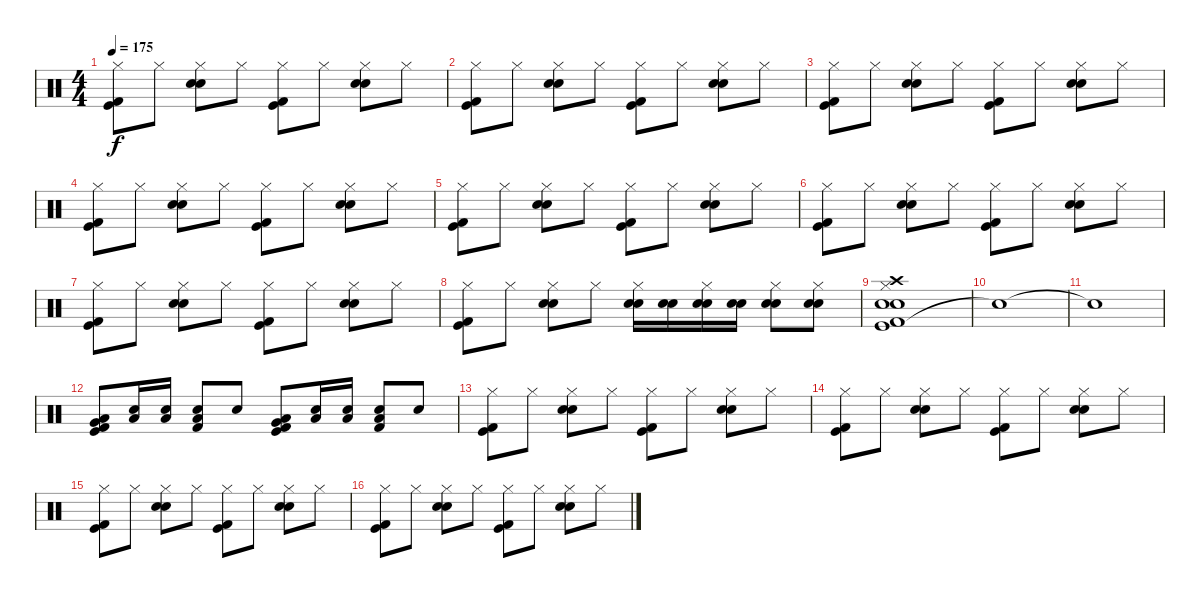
\track "" {instrument percussion}
\staff {score}
\articulation defaults
\ts (4 4)
\tempo 175
\clef neutral
\ks c
("Hi-Hat (closed)" "Kick (hit)" "Kick (hit) 2").8{dy f} "Hi-Hat (closed)".8 ("Electric Snare (hit)" "Snare (hit) 2" "Hi-Hat (closed)").8 "Hi-Hat (closed)".8 ("Hi-Hat (closed)" "Kick (hit)" "Kick (hit) 2").8 "Hi-Hat (closed)".8 ("Electric Snare (hit)" "Snare (hit) 2" "Hi-Hat (closed)").8 "Hi-Hat (closed)".8 |
("Hi-Hat (closed)" "Kick (hit)" "Kick (hit) 2").8 "Hi-Hat (closed)".8 ("Electric Snare (hit)" "Snare (hit) 2" "Hi-Hat (closed)").8 "Hi-Hat (closed)".8 ("Hi-Hat (closed)" "Kick (hit)" "Kick (hit) 2").8 "Hi-Hat (closed)".8 ("Electric Snare (hit)" "Snare (hit) 2" "Hi-Hat (closed)").8 "Hi-Hat (closed)".8 |
("Hi-Hat (closed)" "Kick (hit)" "Kick (hit) 2").8 "Hi-Hat (closed)".8 ("Electric Snare (hit)" "Snare (hit) 2" "Hi-Hat (closed)").8 "Hi-Hat (closed)".8 ("Hi-Hat (closed)" "Kick (hit)" "Kick (hit) 2").8 "Hi-Hat (closed)".8 ("Electric Snare (hit)" "Snare (hit) 2" "Hi-Hat (closed)").8 "Hi-Hat (closed)".8 |
("Hi-Hat (closed)" "Kick (hit)" "Kick (hit) 2").8 "Hi-Hat (closed)".8 ("Electric Snare (hit)" "Snare (hit) 2" "Hi-Hat (closed)").8 "Hi-Hat (closed)".8 ("Hi-Hat (closed)" "Kick (hit)" "Kick (hit) 2").8 "Hi-Hat (closed)".8 ("Electric Snare (hit)" "Snare (hit) 2" "Hi-Hat (closed)").8 "Hi-Hat (closed)".8 |
("Hi-Hat (closed)" "Kick (hit)" "Kick (hit) 2").8 "Hi-Hat (closed)".8 ("Electric Snare (hit)" "Snare (hit) 2" "Hi-Hat (closed)").8 "Hi-Hat (closed)".8 ("Hi-Hat (closed)" "Kick (hit)" "Kick (hit) 2").8 "Hi-Hat (closed)".8 ("Electric Snare (hit)" "Snare (hit) 2" "Hi-Hat (closed)").8 "Hi-Hat (closed)".8 |
("Hi-Hat (closed)" "Kick (hit)" "Kick (hit) 2").8 "Hi-Hat (closed)".8 ("Electric Snare (hit)" "Snare (hit) 2" "Hi-Hat (closed)").8 "Hi-Hat (closed)".8 ("Hi-Hat (closed)" "Kick (hit)" "Kick (hit) 2").8 "Hi-Hat (closed)".8 ("Electric Snare (hit)" "Snare (hit) 2" "Hi-Hat (closed)").8 "Hi-Hat (closed)".8 |
("Hi-Hat (closed)" "Kick (hit)" "Kick (hit) 2").8 "Hi-Hat (closed)".8 ("Electric Snare (hit)" "Snare (hit) 2" "Hi-Hat (closed)").8 "Hi-Hat (closed)".8 ("Hi-Hat (closed)" "Kick (hit)" "Kick (hit) 2").8 "Hi-Hat (closed)".8 ("Electric Snare (hit)" "Snare (hit) 2" "Hi-Hat (closed)").8 "Hi-Hat (closed)".8 |
("Hi-Hat (closed)" "Kick (hit)" "Kick (hit) 2").8 "Hi-Hat (closed)".8 ("Electric Snare (hit)" "Snare (hit) 2" "Hi-Hat (closed)").8 "Hi-Hat (closed)".8 ("Hi-Hat (closed)" "Electric Snare (hit)" "Snare (hit) 2").16 ("Snare (hit) 2" "Electric Snare (hit)").16 ("Snare (hit) 2" "Electric Snare (hit)" "Hi-Hat (closed)").16 ("Snare (hit) 2" "Electric Snare (hit)").16 ("Hi-Hat (closed)" "Snare (hit) 2" "Electric Snare (hit)").8 ("Hi-Hat (closed)" "Electric Snare (hit)" "Snare (hit) 2").8 |
("Kick (hit)" "Kick (hit) 2" "Snare (hit) 2" "Electric Snare (hit)" "Hi-Hat (closed)" "Crash high (hit)").1 |
"Snare (hit)"{t}.1 |
"Snare (hit)"{t}.1 |
("Low Floor Tom (hit)" "Very Low Tom (hit)" "Kick (hit) 2" "Kick (hit)").8 ("Low Floor Tom (hit)" "Electric Snare (hit)").16 ("Low Floor Tom (hit)" "Electric Snare (hit)").16 ("Low Floor Tom (hit)" "Electric Snare (hit)" "Kick (hit) 2").8 "Electric Snare (hit)".8 ("Low Floor Tom (hit)" "Very Low Tom (hit)" "Kick (hit)" "Kick (hit) 2").8 ("Low Floor Tom (hit)" "Electric Snare (hit)").16 ("Low Floor Tom (hit)" "Electric Snare (hit)").16 ("Low Floor Tom (hit)" "Electric Snare (hit)" "Kick (hit) 2").8 "Electric Snare (hit)".8 |
("Kick (hit) 2" "Kick (hit)" "Hi-Hat (closed)").8 "Hi-Hat (closed)".8 ("Electric Snare (hit)" "Snare (hit) 2" "Hi-Hat (closed)").8 "Hi-Hat (closed)".8 ("Hi-Hat (closed)" "Kick (hit)" "Kick (hit) 2").8 "Hi-Hat (closed)".8 ("Electric Snare (hit)" "Snare (hit) 2" "Hi-Hat (closed)").8 "Hi-Hat (closed)".8 |
("Hi-Hat (closed)" "Kick (hit)" "Kick (hit) 2").8 "Hi-Hat (closed)".8 ("Electric Snare (hit)" "Snare (hit) 2" "Hi-Hat (closed)").8 "Hi-Hat (closed)".8 ("Hi-Hat (closed)" "Kick (hit)" "Kick (hit) 2").8 "Hi-Hat (closed)".8 ("Electric Snare (hit)" "Snare (hit) 2" "Hi-Hat (closed)").8 "Hi-Hat (closed)".8 |
("Hi-Hat (closed)" "Kick (hit)" "Kick (hit) 2").8 "Hi-Hat (closed)".8 ("Electric Snare (hit)" "Snare (hit) 2" "Hi-Hat (closed)").8 "Hi-Hat (closed)".8 ("Hi-Hat (closed)" "Kick (hit)" "Kick (hit) 2").8 "Hi-Hat (closed)".8 ("Electric Snare (hit)" "Snare (hit) 2" "Hi-Hat (closed)").8 "Hi-Hat (closed)".8 |
("Hi-Hat (closed)" "Kick (hit)" "Kick (hit) 2").8 "Hi-Hat (closed)".8 ("Electric Snare (hit)" "Snare (hit) 2" "Hi-Hat (closed)").8 "Hi-Hat (closed)".8 ("Hi-Hat (closed)" "Kick (hit)" "Kick (hit) 2").8 "Hi-Hat (closed)".8 ("Electric Snare (hit)" "Snare (hit) 2" "Hi-Hat (closed)").8 "Hi-Hat (closed)".8
